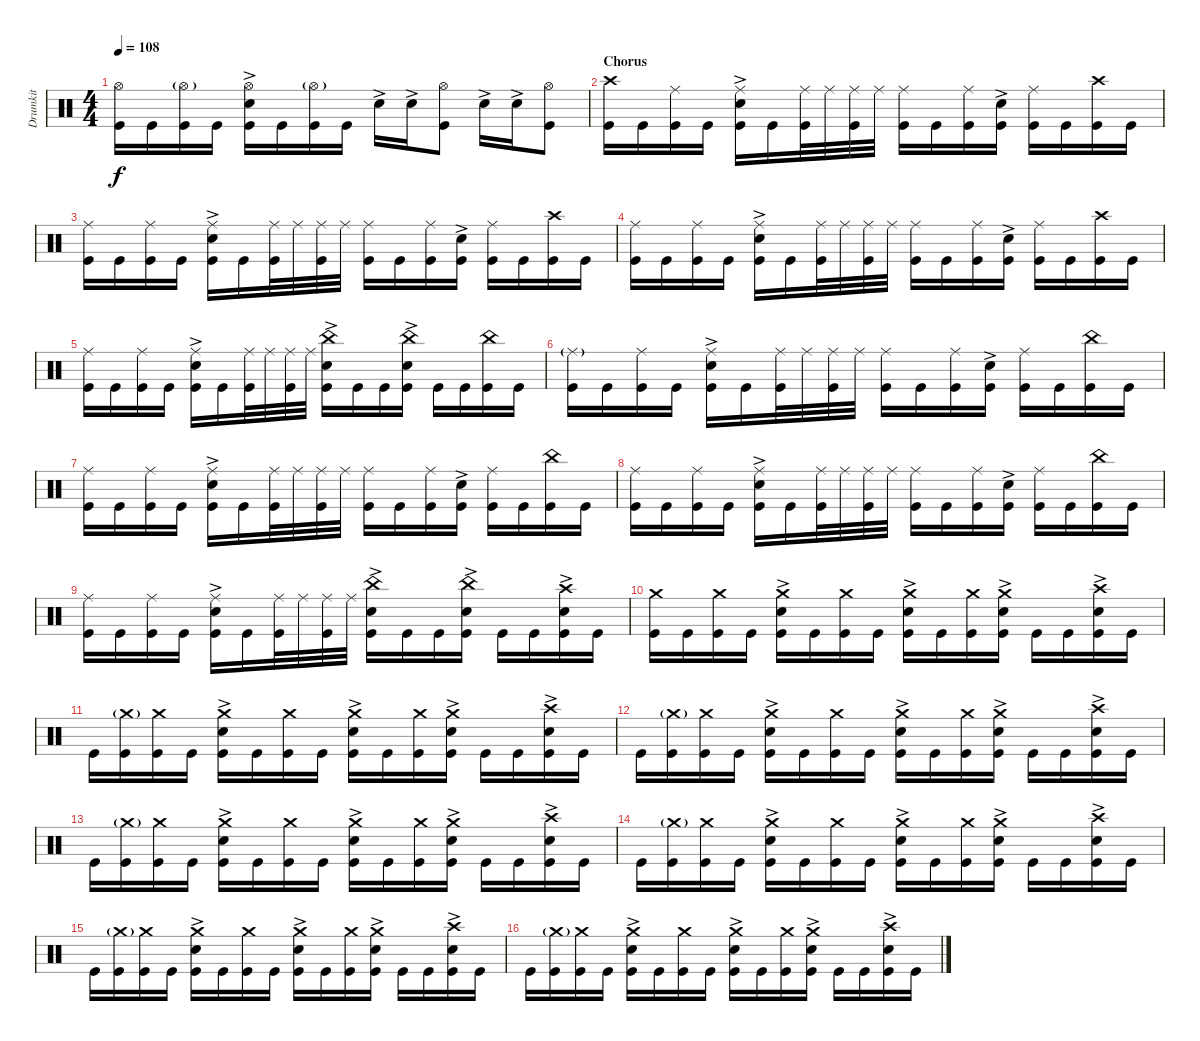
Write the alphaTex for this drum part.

\track ("Drumkit" "Drumkit") {instrument percussion}
\staff {score}
\articulation defaults
\ts (4 4)
\tempo 108
\clef neutral
\ks c
("Kick (hit)" "Hi-Hat (open)").16{dy f} "Kick (hit)".16 ("Kick (hit)" "Hi-Hat (open)"{g}).16 "Kick (hit)".16 ("Kick (hit)" "Snare (hit) 2"{ac} "Hi-Hat (open)").16 "Kick (hit)".16 ("Kick (hit)" "Hi-Hat (open)"{g}).16 "Kick (hit)".16 "Snare (hit) 2"{ac}.16 "Snare (hit) 2"{ac}.16 ("Kick (hit)" "Hi-Hat (open)").8 "Snare (hit) 2"{ac}.16 "Snare (hit) 2"{ac}.16 ("Kick (hit)" "Hi-Hat (open)").8 |
\section ("" "Chorus")
("Kick (hit)" "Crash high (hit)").16 "Kick (hit)".16 ("Ride (middle)" "Kick (hit)").16 "Kick (hit)".16 ("Ride (middle)" "Snare (hit) 2"{ac} "Kick (hit)").16 "Kick (hit)".16 ("Ride (middle)" "Kick (hit)").32 "Ride (middle)".32 ("Ride (middle)" "Kick (hit)").32 "Ride (middle)".32 ("Ride (middle)" "Kick (hit)").16 "Kick (hit)".16 ("Kick (hit)" "Ride (middle)").16 ("Kick (hit)" "Snare (hit) 2"{ac}).16 ("Kick (hit)" "Ride (middle)").16 "Kick (hit)".16 ("Kick (hit)" "Crash high (hit)").16 "Kick (hit)".16 |
("Kick (hit)" "Ride (middle)").16 "Kick (hit)".16 ("Ride (middle)" "Kick (hit)").16 "Kick (hit)".16 ("Ride (middle)" "Snare (hit) 2"{ac} "Kick (hit)").16 "Kick (hit)".16 ("Ride (middle)" "Kick (hit)").32 "Ride (middle)".32 ("Ride (middle)" "Kick (hit)").32 "Ride (middle)".32 ("Ride (middle)" "Kick (hit)").16 "Kick (hit)".16 ("Kick (hit)" "Ride (middle)").16 ("Kick (hit)" "Snare (hit) 2"{ac}).16 ("Kick (hit)" "Ride (middle)").16 "Kick (hit)".16 ("Kick (hit)" "Crash high (hit)").16 "Kick (hit)".16 |
("Kick (hit)" "Ride (middle)").16 "Kick (hit)".16 ("Ride (middle)" "Kick (hit)").16 "Kick (hit)".16 ("Ride (middle)" "Snare (hit) 2"{ac} "Kick (hit)").16 "Kick (hit)".16 ("Ride (middle)" "Kick (hit)").32 "Ride (middle)".32 ("Ride (middle)" "Kick (hit)").32 "Ride (middle)".32 ("Ride (middle)" "Kick (hit)").16 "Kick (hit)".16 ("Kick (hit)" "Ride (middle)").16 ("Kick (hit)" "Snare (hit) 2"{ac}).16 ("Kick (hit)" "Ride (middle)").16 "Kick (hit)".16 ("Kick (hit)" "Crash high (hit)").16 "Kick (hit)".16 |
("Kick (hit)" "Ride (middle)").16 "Kick (hit)".16 ("Ride (middle)" "Kick (hit)").16 "Kick (hit)".16 ("Ride (middle)" "Snare (hit) 2"{ac} "Kick (hit)").16 "Kick (hit)".16 ("Ride (middle)" "Kick (hit)").32 "Ride (middle)".32 ("Ride (middle)" "Kick (hit)").32 "Ride (middle)".32 ("Kick (hit)" "Snare (hit) 2"{ac} "China (hit)").16 "Kick (hit)".16 "Kick (hit)".16 ("Kick (hit)" "Snare (hit) 2"{ac} "China (hit)").16 "Kick (hit)".16 "Kick (hit)".16 ("Kick (hit)" "China (hit)").16 "Kick (hit)".16 |
("Kick (hit)" "Ride (middle)"{g}).16 "Kick (hit)".16 ("Ride (middle)" "Kick (hit)").16 "Kick (hit)".16 ("Ride (middle)" "Snare (hit) 2"{ac} "Kick (hit)").16 "Kick (hit)".16 ("Ride (middle)" "Kick (hit)").32 "Ride (middle)".32 ("Ride (middle)" "Kick (hit)").32 "Ride (middle)".32 ("Ride (middle)" "Kick (hit)").16 "Kick (hit)".16 ("Kick (hit)" "Ride (middle)").16 ("Kick (hit)" "Snare (hit) 2"{ac}).16 ("Kick (hit)" "Ride (middle)").16 "Kick (hit)".16 ("Kick (hit)" "China (hit)").16 "Kick (hit)".16 |
("Kick (hit)" "Ride (middle)").16 "Kick (hit)".16 ("Ride (middle)" "Kick (hit)").16 "Kick (hit)".16 ("Ride (middle)" "Snare (hit) 2"{ac} "Kick (hit)").16 "Kick (hit)".16 ("Ride (middle)" "Kick (hit)").32 "Ride (middle)".32 ("Ride (middle)" "Kick (hit)").32 "Ride (middle)".32 ("Ride (middle)" "Kick (hit)").16 "Kick (hit)".16 ("Kick (hit)" "Ride (middle)").16 ("Kick (hit)" "Snare (hit) 2"{ac}).16 ("Kick (hit)" "Ride (middle)").16 "Kick (hit)".16 ("Kick (hit)" "China (hit)").16 "Kick (hit)".16 |
("Kick (hit)" "Ride (middle)").16 "Kick (hit)".16 ("Ride (middle)" "Kick (hit)").16 "Kick (hit)".16 ("Ride (middle)" "Snare (hit) 2"{ac} "Kick (hit)").16 "Kick (hit)".16 ("Ride (middle)" "Kick (hit)").32 "Ride (middle)".32 ("Ride (middle)" "Kick (hit)").32 "Ride (middle)".32 ("Ride (middle)" "Kick (hit)").16 "Kick (hit)".16 ("Kick (hit)" "Ride (middle)").16 ("Kick (hit)" "Snare (hit) 2"{ac}).16 ("Kick (hit)" "Ride (middle)").16 "Kick (hit)".16 ("Kick (hit)" "China (hit)").16 "Kick (hit)".16 |
("Kick (hit)" "Ride (middle)").16 "Kick (hit)".16 ("Ride (middle)" "Kick (hit)").16 "Kick (hit)".16 ("Ride (middle)" "Snare (hit) 2"{ac} "Kick (hit)").16 "Kick (hit)".16 ("Ride (middle)" "Kick (hit)").32 "Ride (middle)".32 ("Ride (middle)" "Kick (hit)").32 "Ride (middle)".32 ("Kick (hit)" "Snare (hit) 2"{ac} "China (hit)").16 "Kick (hit)".16 "Kick (hit)".16 ("Kick (hit)" "Snare (hit) 2"{ac} "China (hit)").16 "Kick (hit)".16 "Kick (hit)".16 ("Kick (hit)" "Crash high (hit)" "Snare (hit) 2"{ac}).16 "Kick (hit)".16 |
("Kick (hit)" "Crash medium (hit)").16 "Kick (hit)".16 ("Kick (hit)" "Crash medium (hit)").16 "Kick (hit)".16 ("Kick (hit)" "Snare (hit) 2"{ac} "Crash medium (hit)").16 "Kick (hit)".16 ("Kick (hit)" "Crash medium (hit)").16 "Kick (hit)".16 ("Kick (hit)" "Snare (hit) 2"{ac} "Crash medium (hit)").16 "Kick (hit)".16 ("Kick (hit)" "Crash medium (hit)").16 ("Kick (hit)" "Snare (hit) 2"{ac} "Crash medium (hit)").16 "Kick (hit)".16 "Kick (hit)".16 ("Kick (hit)" "Crash high (hit)" "Snare (hit) 2"{ac}).16 "Kick (hit)".16 |
"Kick (hit)".16 ("Kick (hit)" "Crash medium (hit)"{g}).16 ("Kick (hit)" "Crash medium (hit)").16 "Kick (hit)".16 ("Kick (hit)" "Snare (hit) 2"{ac} "Crash medium (hit)").16 "Kick (hit)".16 ("Kick (hit)" "Crash medium (hit)").16 "Kick (hit)".16 ("Kick (hit)" "Snare (hit) 2"{ac} "Crash medium (hit)").16 "Kick (hit)".16 ("Kick (hit)" "Crash medium (hit)").16 ("Kick (hit)" "Snare (hit) 2"{ac} "Crash medium (hit)").16 "Kick (hit)".16 "Kick (hit)".16 ("Kick (hit)" "Crash high (hit)" "Snare (hit) 2"{ac}).16 "Kick (hit)".16 |
"Kick (hit)".16 ("Kick (hit)" "Crash medium (hit)"{g}).16 ("Kick (hit)" "Crash medium (hit)").16 "Kick (hit)".16 ("Kick (hit)" "Snare (hit) 2"{ac} "Crash medium (hit)").16 "Kick (hit)".16 ("Kick (hit)" "Crash medium (hit)").16 "Kick (hit)".16 ("Kick (hit)" "Snare (hit) 2"{ac} "Crash medium (hit)").16 "Kick (hit)".16 ("Kick (hit)" "Crash medium (hit)").16 ("Kick (hit)" "Snare (hit) 2"{ac} "Crash medium (hit)").16 "Kick (hit)".16 "Kick (hit)".16 ("Kick (hit)" "Crash high (hit)" "Snare (hit) 2"{ac}).16 "Kick (hit)".16 |
"Kick (hit)".16 ("Kick (hit)" "Crash medium (hit)"{g}).16 ("Kick (hit)" "Crash medium (hit)").16 "Kick (hit)".16 ("Kick (hit)" "Snare (hit) 2"{ac} "Crash medium (hit)").16 "Kick (hit)".16 ("Kick (hit)" "Crash medium (hit)").16 "Kick (hit)".16 ("Kick (hit)" "Snare (hit) 2"{ac} "Crash medium (hit)").16 "Kick (hit)".16 ("Kick (hit)" "Crash medium (hit)").16 ("Kick (hit)" "Snare (hit) 2"{ac} "Crash medium (hit)").16 "Kick (hit)".16 "Kick (hit)".16 ("Kick (hit)" "Crash high (hit)" "Snare (hit) 2"{ac}).16 "Kick (hit)".16 |
"Kick (hit)".16 ("Kick (hit)" "Crash medium (hit)"{g}).16 ("Kick (hit)" "Crash medium (hit)").16 "Kick (hit)".16 ("Kick (hit)" "Snare (hit) 2"{ac} "Crash medium (hit)").16 "Kick (hit)".16 ("Kick (hit)" "Crash medium (hit)").16 "Kick (hit)".16 ("Kick (hit)" "Snare (hit) 2"{ac} "Crash medium (hit)").16 "Kick (hit)".16 ("Kick (hit)" "Crash medium (hit)").16 ("Kick (hit)" "Snare (hit) 2"{ac} "Crash medium (hit)").16 "Kick (hit)".16 "Kick (hit)".16 ("Kick (hit)" "Crash high (hit)" "Snare (hit) 2"{ac}).16 "Kick (hit)".16 |
"Kick (hit)".16 ("Kick (hit)" "Crash medium (hit)"{g}).16 ("Kick (hit)" "Crash medium (hit)").16 "Kick (hit)".16 ("Kick (hit)" "Snare (hit) 2"{ac} "Crash medium (hit)").16 "Kick (hit)".16 ("Kick (hit)" "Crash medium (hit)").16 "Kick (hit)".16 ("Kick (hit)" "Snare (hit) 2"{ac} "Crash medium (hit)").16 "Kick (hit)".16 ("Kick (hit)" "Crash medium (hit)").16 ("Kick (hit)" "Snare (hit) 2"{ac} "Crash medium (hit)").16 "Kick (hit)".16 "Kick (hit)".16 ("Kick (hit)" "Crash high (hit)" "Snare (hit) 2"{ac}).16 "Kick (hit)".16 |
"Kick (hit)".16 ("Kick (hit)" "Crash medium (hit)"{g}).16 ("Kick (hit)" "Crash medium (hit)").16 "Kick (hit)".16 ("Kick (hit)" "Snare (hit) 2"{ac} "Crash medium (hit)").16 "Kick (hit)".16 ("Kick (hit)" "Crash medium (hit)").16 "Kick (hit)".16 ("Kick (hit)" "Snare (hit) 2"{ac} "Crash medium (hit)").16 "Kick (hit)".16 ("Kick (hit)" "Crash medium (hit)").16 ("Kick (hit)" "Snare (hit) 2"{ac} "Crash medium (hit)").16 "Kick (hit)".16 "Kick (hit)".16 ("Kick (hit)" "Crash high (hit)" "Snare (hit) 2"{ac}).16 "Kick (hit)".16
